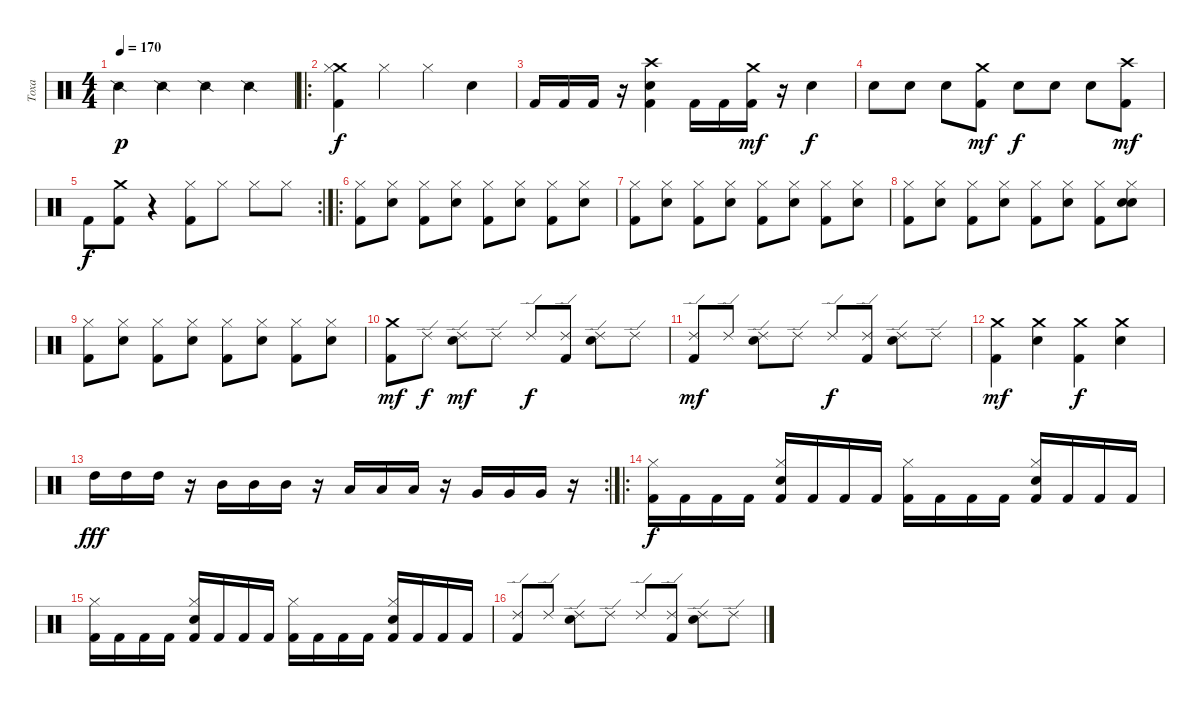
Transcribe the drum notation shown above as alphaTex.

\track ("Тоха" "Тоха") {instrument percussion}
\staff {score}
\articulation defaults
\ts (4 4)
\tempo 170
\clef neutral
\ks c "Snare (side stick) 2".4{dy p} "Snare (side stick) 2".4 "Snare (side stick) 2".4 "Snare (side stick) 2".4
|
\ro
("Crash medium (hit)" "Kick (hit) 2" "Hi-Hat (closed)").4{dy f} "Hi-Hat (closed)".4 "Hi-Hat (closed)".4 "Snare (hit) 2".4 |
"Kick (hit) 2".16 "Kick (hit) 2".16 "Kick (hit) 2".16 r.16 ("Crash high (hit)" "Snare (hit) 2" "Kick (hit) 2").4 "Kick (hit) 2".16 "Kick (hit) 2".16 ("Crash medium (hit)" "Kick (hit) 2").16{dy mf} r.16 "Snare (hit) 2".4{dy f} |
"Snare (hit) 2".8 "Snare (hit) 2".8 "Snare (hit) 2".8 ("Crash medium (hit)" "Kick (hit) 2").8{dy mf} "Snare (hit) 2".8{dy f} "Snare (hit) 2".8 "Snare (hit) 2".8 ("Crash high (hit)" "Kick (hit) 2").8{dy mf} |
\rc 2 "Kick (hit) 2".8{dy f}
("Crash medium (hit)" "Kick (hit) 2").8 r.4 ("Kick (hit) 2" "Hi-Hat (closed)").8 "Hi-Hat (closed)".8 "Hi-Hat (closed)".8 "Hi-Hat (closed)".8 |
\ro
("Hi-Hat (closed)" "Kick (hit) 2").8 ("Hi-Hat (closed)" "Snare (hit) 2").8 ("Hi-Hat (closed)" "Kick (hit) 2").8 ("Hi-Hat (closed)" "Snare (hit) 2").8 ("Hi-Hat (closed)" "Kick (hit) 2").8 ("Hi-Hat (closed)" "Snare (hit) 2").8 ("Hi-Hat (closed)" "Kick (hit) 2").8 ("Hi-Hat (closed)" "Snare (hit) 2").8 |
("Hi-Hat (closed)" "Kick (hit) 2").8 ("Hi-Hat (closed)" "Snare (hit) 2").8 ("Hi-Hat (closed)" "Kick (hit) 2").8 ("Hi-Hat (closed)" "Snare (hit) 2").8 ("Hi-Hat (closed)" "Kick (hit) 2").8 ("Hi-Hat (closed)" "Snare (hit) 2").8 ("Hi-Hat (closed)" "Kick (hit) 2").8 ("Hi-Hat (closed)" "Snare (hit) 2").8 |
("Hi-Hat (closed)" "Kick (hit) 2").8 ("Hi-Hat (closed)" "Snare (hit) 2").8 ("Hi-Hat (closed)" "Kick (hit) 2").8 ("Hi-Hat (closed)" "Snare (hit) 2").8 ("Hi-Hat (closed)" "Kick (hit) 2").8 ("Hi-Hat (closed)" "Snare (hit) 2").8 ("Hi-Hat (closed)" "Kick (hit) 2").8 ("Hi-Hat (closed)" "Snare (hit) 2" "Snare (hit) 2").8 |
("Hi-Hat (closed)" "Kick (hit) 2").8 ("Hi-Hat (closed)" "Snare (hit) 2").8 ("Hi-Hat (closed)" "Kick (hit) 2").8 ("Hi-Hat (closed)" "Snare (hit) 2").8 ("Hi-Hat (closed)" "Kick (hit) 2").8 ("Hi-Hat (closed)" "Snare (hit) 2").8 ("Hi-Hat (closed)" "Kick (hit) 2").8 ("Hi-Hat (closed)" "Snare (hit) 2").8 |
("Crash medium (hit)" "Kick (hit) 2").8{dy mf} "Ride (edge) 2".8{dy f} ("Ride (edge) 2" "Snare (hit) 2").8{dy mf} "Ride (edge) 2".8 "Ride (edge) 2".8{dy f} ("Ride (edge) 2" "Kick (hit) 2").8 ("Ride (edge) 2" "Snare (hit) 2").8 "Ride (edge) 2".8 |
("Ride (edge) 2" "Kick (hit) 2").8{dy mf} "Ride (edge) 2".8 ("Ride (edge) 2" "Snare (hit) 2").8 "Ride (edge) 2".8 "Ride (edge) 2".8{dy f} ("Ride (edge) 2" "Kick (hit) 2").8 ("Ride (edge) 2" "Snare (hit) 2").8 "Ride (edge) 2".8 |
("Crash medium (hit)" "Kick (hit) 2").4{dy mf} ("Crash medium (hit)" "Snare (hit) 2").4 ("Crash medium (hit)" "Kick (hit) 2").4{dy f} ("Crash medium (hit)" "Snare (hit) 2").4 |
\rc 2 "High Tom (hit)".16{dy fff} "High Tom (hit)".16 "High Tom (hit)".16
r.16 "Mid Tom (hit)".16 "Mid Tom (hit)".16 "Mid Tom (hit)".16 r.16 "Low Tom (hit)".16 "Low Tom (hit)".16 "Low Tom (hit)".16 r.16 "Very Low Tom (hit)".16 "Very Low Tom (hit)".16 "Very Low Tom (hit)".16 r.16 |
\ro
("Hi-Hat (closed)" "Kick (hit) 2").16{dy f} "Kick (hit) 2".16 "Kick (hit) 2".16 "Kick (hit) 2".16 ("Hi-Hat (closed)" "Snare (hit) 2" "Kick (hit) 2").16 "Kick (hit) 2".16 "Kick (hit) 2".16 "Kick (hit) 2".16 ("Hi-Hat (closed)" "Kick (hit) 2").16 "Kick (hit) 2".16 "Kick (hit) 2".16 "Kick (hit) 2".16 ("Hi-Hat (closed)" "Snare (hit) 2" "Kick (hit) 2").16 "Kick (hit) 2".16 "Kick (hit) 2".16 "Kick (hit) 2".16 |
("Hi-Hat (closed)" "Kick (hit) 2").16 "Kick (hit) 2".16 "Kick (hit) 2".16 "Kick (hit) 2".16 ("Hi-Hat (closed)" "Snare (hit) 2" "Kick (hit) 2").16 "Kick (hit) 2".16 "Kick (hit) 2".16 "Kick (hit) 2".16 ("Hi-Hat (closed)" "Kick (hit) 2").16 "Kick (hit) 2".16 "Kick (hit) 2".16 "Kick (hit) 2".16 ("Hi-Hat (closed)" "Snare (hit) 2" "Kick (hit) 2").16 "Kick (hit) 2".16 "Kick (hit) 2".16 "Kick (hit) 2".16 |
("Ride (edge) 2" "Kick (hit) 2").8 "Ride (edge) 2".8 ("Ride (edge) 2" "Snare (hit) 2").8 "Ride (edge) 2".8 "Ride (edge) 2".8 ("Ride (edge) 2" "Kick (hit) 2").8 ("Ride (edge) 2" "Snare (hit) 2").8 "Ride (edge) 2".8
